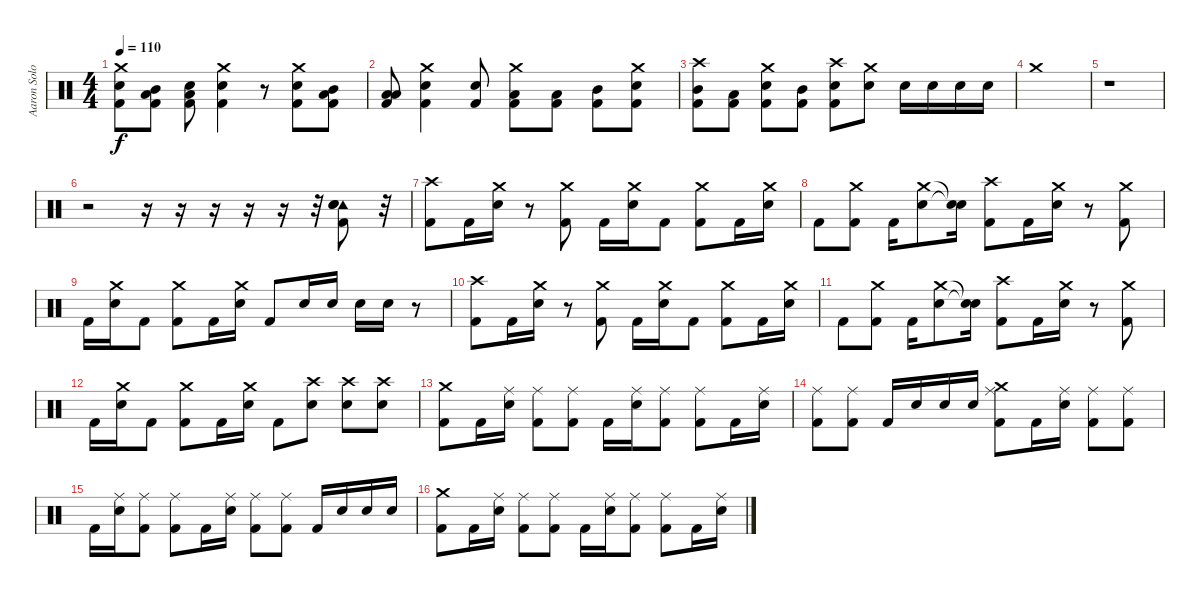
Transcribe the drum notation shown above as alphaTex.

\track ("Aaron Solowoniuk - Drum" "Aaron Solo") {instrument percussion}
\staff {score}
\articulation defaults
\ts (4 4)
\tempo 110
\clef neutral
\ks c
("Crash medium (hit)" "Electric Snare (hit)" "Kick (hit) 2").8{dy f} ("Mid Tom (hit)" "Low Tom (hit)" "Kick (hit) 2").8 ("Low Tom (hit)" "Electric Snare (hit)" "Kick (hit) 2").8 ("Crash medium (hit)" "Electric Snare (hit)" "Kick (hit) 2").4 r.8 ("Crash medium (hit)" "Electric Snare (hit)" "Kick (hit) 2").8 ("Mid Tom (hit)" "Low Tom (hit)" "Kick (hit) 2").8 |
("Low Tom (hit)" "Low Tom (hit)" "Kick (hit) 2").8 ("Crash medium (hit)" "Electric Snare (hit)" "Kick (hit) 2").4 ("Electric Snare (hit)" "Kick (hit) 2").8 ("Crash medium (hit)" "Low Tom (hit)" "Kick (hit) 2").8 ("Low Tom (hit)" "Kick (hit) 2").8 ("Mid Tom (hit)" "Kick (hit) 2").8 ("Crash medium (hit)" "Electric Snare (hit)" "Kick (hit) 2").8 |
("Crash high (hit)" "Mid Tom (hit)" "Kick (hit) 2").8 ("Low Tom (hit)" "Kick (hit) 2").8 ("Crash medium (hit)" "Electric Snare (hit)" "Kick (hit) 2").8 ("Mid Tom (hit)" "Kick (hit) 2").8 ("Crash high (hit)" "Electric Snare (hit)" "Kick (hit) 2").8 ("Crash medium (hit)" "Electric Snare (hit)").8 "Electric Snare (hit)".16 "Electric Snare (hit)".16 "Electric Snare (hit)".16 "Electric Snare (hit)".16 |
"Crash medium (hit)".1 |
r.1 |
r.2 r.16 r.16 r.16 r.16 r.16 r.32 ("Tambourine (hit)" "Electric Snare (hit)" "Electric Snare (hit)" "Kick (hit) 2").8 r.32 |
("Crash high (hit)" "Kick (hit) 2").8 "Kick (hit) 2".16 ("Crash medium (hit)" "Electric Snare (hit)").16 r.8 ("Crash medium (hit)" "Kick (hit) 2").8 "Kick (hit) 2".16 ("Crash medium (hit)" "Electric Snare (hit)").16 "Kick (hit) 2".8 ("Crash medium (hit)" "Kick (hit) 2").8 "Kick (hit) 2".16 ("Crash medium (hit)" "Electric Snare (hit)").16 |
"Kick (hit) 2".8 ("Crash medium (hit)" "Kick (hit) 2").8 "Kick (hit) 2".16 ("Crash medium (hit)" "Electric Snare (hit)").8 ("Snare (hit)"{t} "Snare (hit)"{t}).16 ("Crash high (hit)" "Kick (hit) 2").8 "Kick (hit) 2".16 ("Crash medium (hit)" "Electric Snare (hit)").16 r.8 ("Crash medium (hit)" "Kick (hit) 2").8 |
"Kick (hit) 2".16 ("Crash medium (hit)" "Electric Snare (hit)").16 "Kick (hit) 2".8 ("Crash medium (hit)" "Kick (hit) 2").8 "Kick (hit) 2".16 ("Crash medium (hit)" "Electric Snare (hit)").16 "Kick (hit) 2".8 "Electric Snare (hit)".16 "Electric Snare (hit)".16 "Electric Snare (hit)".16 "Electric Snare (hit)".16 r.8 |
("Crash high (hit)" "Kick (hit) 2").8 "Kick (hit) 2".16 ("Crash medium (hit)" "Electric Snare (hit)").16 r.8 ("Crash medium (hit)" "Kick (hit) 2").8 "Kick (hit) 2".16 ("Crash medium (hit)" "Electric Snare (hit)").16 "Kick (hit) 2".8 ("Crash medium (hit)" "Kick (hit) 2").8 "Kick (hit) 2".16 ("Crash medium (hit)" "Electric Snare (hit)").16 |
"Kick (hit) 2".8 ("Crash medium (hit)" "Kick (hit) 2").8 "Kick (hit) 2".16 ("Crash medium (hit)" "Electric Snare (hit)").8 ("Snare (hit)"{t} "Snare (hit)"{t}).16 ("Crash high (hit)" "Kick (hit) 2").8 "Kick (hit) 2".16 ("Crash medium (hit)" "Electric Snare (hit)").16 r.8 ("Crash medium (hit)" "Kick (hit) 2").8 |
"Kick (hit) 2".16 ("Crash medium (hit)" "Electric Snare (hit)").16 "Kick (hit) 2".8 ("Crash medium (hit)" "Kick (hit) 2").8 "Kick (hit) 2".16 ("Crash medium (hit)" "Electric Snare (hit)").16 "Kick (hit) 2".8 ("Crash high (hit)" "Electric Snare (hit)").8 ("Crash high (hit)" "Electric Snare (hit)").8 ("Crash high (hit)" "Electric Snare (hit)").8 |
("Crash medium (hit)" "Kick (hit) 2").8 "Kick (hit) 2".16 ("Ride (middle)" "Electric Snare (hit)").16 ("Ride (middle)" "Kick (hit) 2").8 ("Ride (middle)" "Kick (hit) 2").8 "Kick (hit) 2".16 ("Ride (middle)" "Electric Snare (hit)").16 ("Ride (middle)" "Kick (hit) 2").8 ("Ride (middle)" "Kick (hit) 2").8 "Kick (hit) 2".16 ("Ride (middle)" "Electric Snare (hit)").16 |
("Ride (middle)" "Kick (hit) 2").8 ("Ride (middle)" "Kick (hit) 2").8 "Kick (hit) 2".16 "Electric Snare (hit)".16 "Electric Snare (hit)".16 "Electric Snare (hit)".16 ("Crash medium (hit)" "Ride (middle)" "Kick (hit) 2").8 "Kick (hit) 2".16 ("Ride (middle)" "Electric Snare (hit)").16 ("Ride (middle)" "Kick (hit) 2").8 ("Ride (middle)" "Kick (hit) 2").8 |
"Kick (hit) 2".16 ("Ride (middle)" "Electric Snare (hit)").16 ("Ride (middle)" "Kick (hit) 2").8 ("Ride (middle)" "Kick (hit) 2").8 "Kick (hit) 2".16 ("Ride (middle)" "Electric Snare (hit)").16 ("Ride (middle)" "Kick (hit) 2").8 ("Ride (middle)" "Kick (hit) 2").8 "Kick (hit) 2".16 "Electric Snare (hit)".16 "Electric Snare (hit)".16 "Electric Snare (hit)".16 |
("Crash medium (hit)" "Kick (hit) 2").8 "Kick (hit) 2".16 ("Ride (middle)" "Electric Snare (hit)").16 ("Ride (middle)" "Kick (hit) 2").8 ("Ride (middle)" "Kick (hit) 2").8 "Kick (hit) 2".16 ("Ride (middle)" "Electric Snare (hit)").16 ("Ride (middle)" "Kick (hit) 2").8 ("Ride (middle)" "Kick (hit) 2").8 "Kick (hit) 2".16 ("Ride (middle)" "Electric Snare (hit)").16
